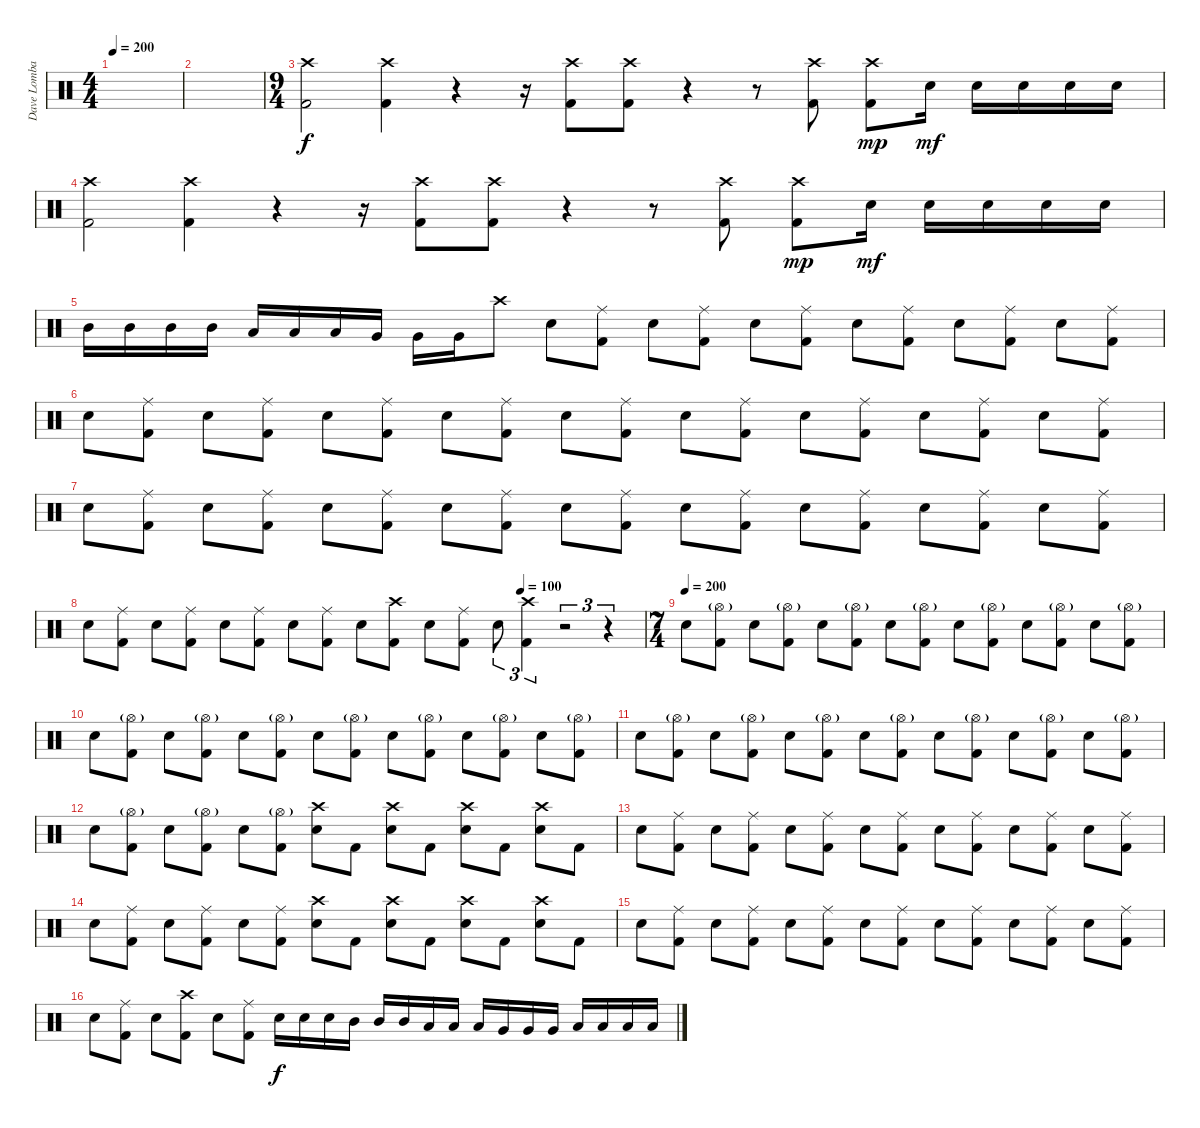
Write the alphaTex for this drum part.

\track ("Dave Lombardo" "Dave Lomba") {instrument percussion}
\staff {score}
\articulation defaults
\ts (4 4)
\tempo 200
\clef neutral
\ks c
|
|
\ts (9 4)
("Crash high (hit)" "Kick (hit) 2").2 ("Crash high (hit)" "Kick (hit) 2").4 r.4 r.16 ("Crash high (hit)" "Kick (hit) 2").8 ("Crash high (hit)" "Kick (hit) 2").8 r.4 r.8 ("Crash high (hit)" "Kick (hit) 2").8 ("Crash high (hit)" "Kick (hit) 2").8{dy mp} "Snare (hit) 2".16{dy mf} "Snare (hit) 2".16 "Snare (hit) 2".16 "Snare (hit) 2".16 "Snare (hit) 2".16 |
("Crash high (hit)" "Kick (hit) 2").2 ("Crash high (hit)" "Kick (hit) 2").4 r.4 r.16 ("Crash high (hit)" "Kick (hit) 2").8 ("Crash high (hit)" "Kick (hit) 2").8 r.4 r.8 ("Crash high (hit)" "Kick (hit) 2").8 ("Crash high (hit)" "Kick (hit) 2").8{dy mp} "Snare (hit) 2".16{dy mf} "Snare (hit) 2".16 "Snare (hit) 2".16 "Snare (hit) 2".16 "Snare (hit) 2".16 |
"Mid Tom (hit)".16 "Mid Tom (hit)".16 "Mid Tom (hit)".16 "Mid Tom (hit)".16 "Low Tom (hit)".16 "Low Tom (hit)".16 "Low Tom (hit)".16 "Very Low Tom (hit)".16 "Very Low Tom (hit)".16 "Very Low Tom (hit)".16 "Crash high (hit)".8 "Snare (hit) 2".8 ("Ride (middle)" "Kick (hit) 2").8 "Snare (hit) 2".8 ("Ride (middle)" "Kick (hit) 2").8 "Snare (hit) 2".8 ("Ride (middle)" "Kick (hit) 2").8 "Snare (hit) 2".8 ("Ride (middle)" "Kick (hit) 2").8 "Snare (hit) 2".8 ("Ride (middle)" "Kick (hit) 2").8 "Snare (hit) 2".8 ("Ride (middle)" "Kick (hit) 2").8 |
"Snare (hit) 2".8 ("Ride (middle)" "Kick (hit) 2").8 "Snare (hit) 2".8 ("Ride (middle)" "Kick (hit) 2").8 "Snare (hit) 2".8 ("Ride (middle)" "Kick (hit) 2").8 "Snare (hit) 2".8 ("Ride (middle)" "Kick (hit) 2").8 "Snare (hit) 2".8 ("Ride (middle)" "Kick (hit) 2").8 "Snare (hit) 2".8 ("Ride (middle)" "Kick (hit) 2").8 "Snare (hit) 2".8 ("Ride (middle)" "Kick (hit) 2").8 "Snare (hit) 2".8 ("Ride (middle)" "Kick (hit) 2").8 "Snare (hit) 2".8 ("Ride (middle)" "Kick (hit) 2").8 |
"Snare (hit) 2".8 ("Ride (middle)" "Kick (hit) 2").8 "Snare (hit) 2".8 ("Ride (middle)" "Kick (hit) 2").8 "Snare (hit) 2".8 ("Ride (middle)" "Kick (hit) 2").8 "Snare (hit) 2".8 ("Ride (middle)" "Kick (hit) 2").8 "Snare (hit) 2".8 ("Ride (middle)" "Kick (hit) 2").8 "Snare (hit) 2".8 ("Ride (middle)" "Kick (hit) 2").8 "Snare (hit) 2".8 ("Ride (middle)" "Kick (hit) 2").8 "Snare (hit) 2".8 ("Ride (middle)" "Kick (hit) 2").8 "Snare (hit) 2".8 ("Ride (middle)" "Kick (hit) 2").8 |
\tempo (100 0.7777777777777778)
"Snare (hit) 2".8 ("Ride (middle)" "Kick (hit) 2").8 "Snare (hit) 2".8 ("Ride (middle)" "Kick (hit) 2").8 "Snare (hit) 2".8 ("Ride (middle)" "Kick (hit) 2").8 "Snare (hit) 2".8 ("Ride (middle)" "Kick (hit) 2").8 "Snare (hit) 2".8 ("Crash high (hit)" "Kick (hit) 2").8 "Snare (hit) 2".8 ("Ride (middle)" "Kick (hit) 2").8 "Snare (hit) 2".8{tu (3 2)} ("Crash high (hit)" "Kick (hit) 2").4{tu (3 2)} r.2{tu (3 2)} r.4{tu (3 2)} |
\ts (7 4)
\tempo (200)
"Snare (hit) 2".8 ("Hi-Hat (open)"{g} "Kick (hit) 2").8 "Snare (hit) 2".8 ("Hi-Hat (open)"{g} "Kick (hit) 2").8 "Snare (hit) 2".8 ("Hi-Hat (open)"{g} "Kick (hit) 2").8 "Snare (hit) 2".8 ("Hi-Hat (open)"{g} "Kick (hit) 2").8 "Snare (hit) 2".8 ("Hi-Hat (open)"{g} "Kick (hit) 2").8 "Snare (hit) 2".8 ("Hi-Hat (open)"{g} "Kick (hit) 2").8 "Snare (hit) 2".8 ("Hi-Hat (open)"{g} "Kick (hit) 2").8 |
"Snare (hit) 2".8 ("Hi-Hat (open)"{g} "Kick (hit) 2").8 "Snare (hit) 2".8 ("Hi-Hat (open)"{g} "Kick (hit) 2").8 "Snare (hit) 2".8 ("Hi-Hat (open)"{g} "Kick (hit) 2").8 "Snare (hit) 2".8 ("Hi-Hat (open)"{g} "Kick (hit) 2").8 "Snare (hit) 2".8 ("Hi-Hat (open)"{g} "Kick (hit) 2").8 "Snare (hit) 2".8 ("Hi-Hat (open)"{g} "Kick (hit) 2").8 "Snare (hit) 2".8 ("Hi-Hat (open)"{g} "Kick (hit) 2").8 |
"Snare (hit) 2".8 ("Hi-Hat (open)"{g} "Kick (hit) 2").8 "Snare (hit) 2".8 ("Hi-Hat (open)"{g} "Kick (hit) 2").8 "Snare (hit) 2".8 ("Hi-Hat (open)"{g} "Kick (hit) 2").8 "Snare (hit) 2".8 ("Hi-Hat (open)"{g} "Kick (hit) 2").8 "Snare (hit) 2".8 ("Hi-Hat (open)"{g} "Kick (hit) 2").8 "Snare (hit) 2".8 ("Hi-Hat (open)"{g} "Kick (hit) 2").8 "Snare (hit) 2".8 ("Hi-Hat (open)"{g} "Kick (hit) 2").8 |
"Snare (hit) 2".8 ("Hi-Hat (open)"{g} "Kick (hit) 2").8 "Snare (hit) 2".8 ("Hi-Hat (open)"{g} "Kick (hit) 2").8 "Snare (hit) 2".8 ("Hi-Hat (open)"{g} "Kick (hit) 2").8 ("Crash high (hit)" "Snare (hit) 2").8 "Kick (hit) 2".8 ("Crash high (hit)" "Snare (hit) 2").8 "Kick (hit) 2".8 ("Crash high (hit)" "Snare (hit) 2").8 "Kick (hit) 2".8 ("Crash high (hit)" "Snare (hit) 2").8 "Kick (hit) 2".8 |
"Snare (hit) 2".8 ("Ride (middle)" "Kick (hit) 2").8 "Snare (hit) 2".8 ("Ride (middle)" "Kick (hit) 2").8 "Snare (hit) 2".8 ("Ride (middle)" "Kick (hit) 2").8 "Snare (hit) 2".8 ("Ride (middle)" "Kick (hit) 2").8 "Snare (hit) 2".8 ("Ride (middle)" "Kick (hit) 2").8 "Snare (hit) 2".8 ("Ride (middle)" "Kick (hit) 2").8 "Snare (hit) 2".8 ("Ride (middle)" "Kick (hit) 2").8 |
"Snare (hit) 2".8 ("Ride (middle)" "Kick (hit) 2").8 "Snare (hit) 2".8 ("Ride (middle)" "Kick (hit) 2").8 "Snare (hit) 2".8 ("Ride (middle)" "Kick (hit) 2").8 ("Crash high (hit)" "Snare (hit) 2").8 "Kick (hit) 2".8 ("Crash high (hit)" "Snare (hit) 2").8 "Kick (hit) 2".8 ("Crash high (hit)" "Snare (hit) 2").8 "Kick (hit) 2".8 ("Crash high (hit)" "Snare (hit) 2").8 "Kick (hit) 2".8 |
"Snare (hit) 2".8 ("Ride (middle)" "Kick (hit) 2").8 "Snare (hit) 2".8 ("Ride (middle)" "Kick (hit) 2").8 "Snare (hit) 2".8 ("Ride (middle)" "Kick (hit) 2").8 "Snare (hit) 2".8 ("Ride (middle)" "Kick (hit) 2").8 "Snare (hit) 2".8 ("Ride (middle)" "Kick (hit) 2").8 "Snare (hit) 2".8 ("Ride (middle)" "Kick (hit) 2").8 "Snare (hit) 2".8 ("Ride (middle)" "Kick (hit) 2").8 |
"Snare (hit) 2".8 ("Ride (middle)" "Kick (hit) 2").8 "Snare (hit) 2".8 ("Crash high (hit)" "Kick (hit) 2").8 "Snare (hit) 2".8 ("Ride (middle)" "Kick (hit) 2").8 "Snare (hit) 2".16{dy f} "Snare (hit) 2".16 "Snare (hit) 2".16 "Mid Tom (hit)".16 "Mid Tom (hit)".16 "Mid Tom (hit)".16 "Low Tom (hit)".16 "Low Tom (hit)".16 "Low Tom (hit)".16 "Very Low Tom (hit)".16 "Very Low Tom (hit)".16 "Very Low Tom (hit)".16 "Low Floor Tom (hit)".16 "Low Floor Tom (hit)".16 "Low Floor Tom (hit)".16 "Low Floor Tom (hit)".16
